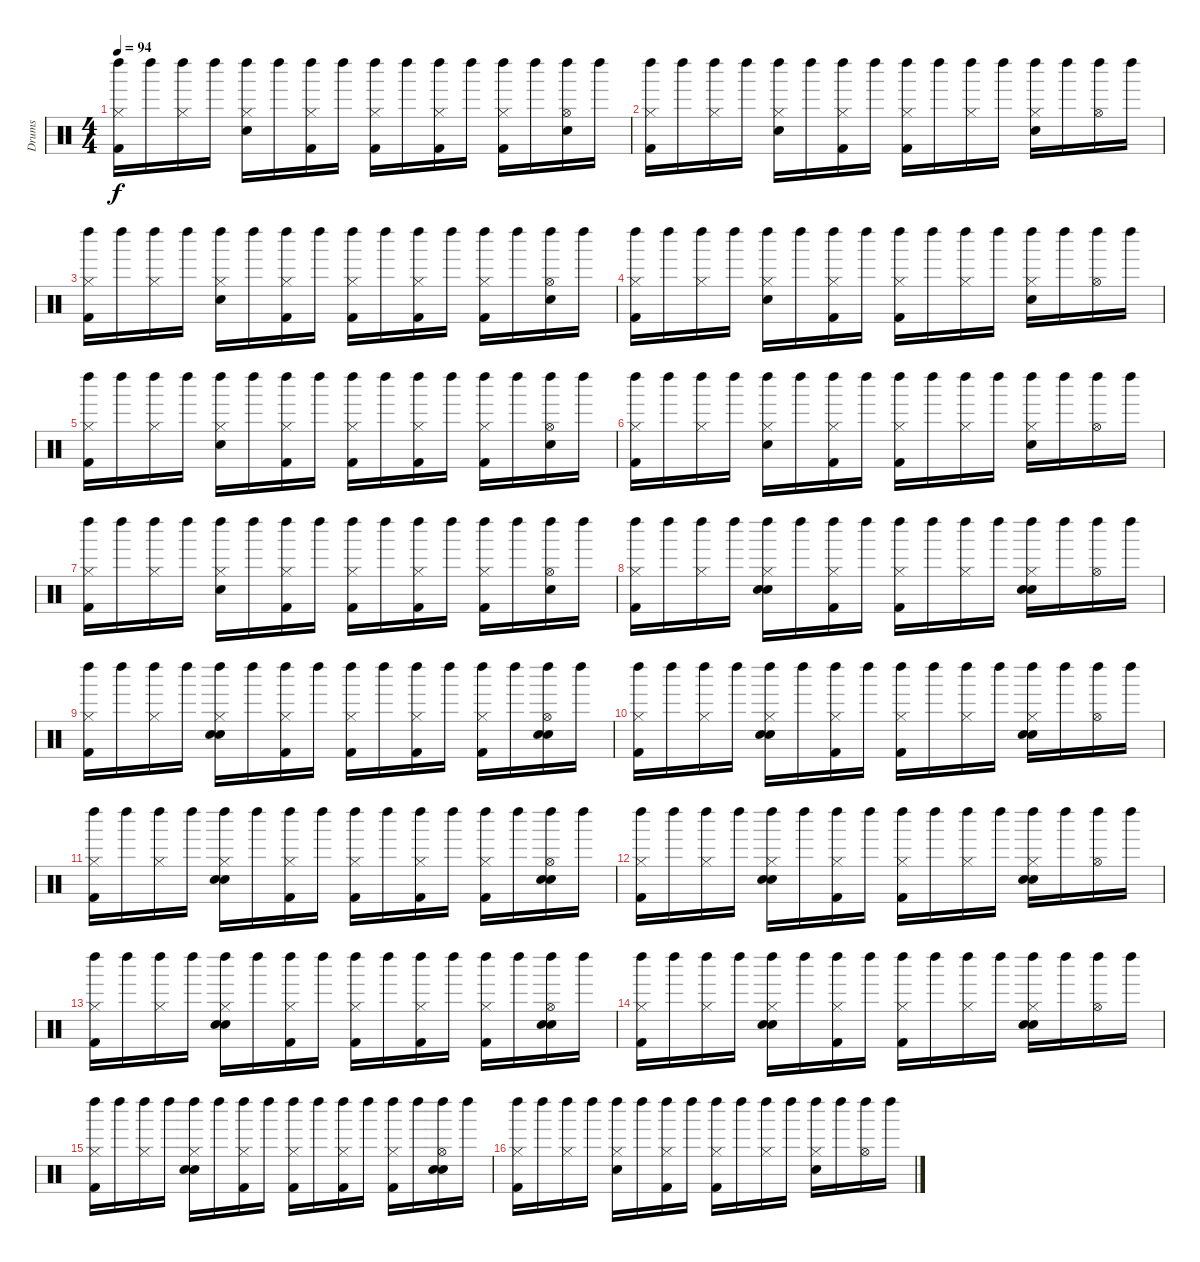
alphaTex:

\track ("Drums" "Drums") {instrument percussion}
\staff {score}
\articulation defaults
\ts (4 4)
\tempo 94
\clef neutral
\ks c
("Left Maraca (hit)" "Hi-Hat (closed)" "Kick (hit) 2").16{dy f} "Left Maraca (hit)".16 ("Left Maraca (hit)" "Hi-Hat (closed)").16 "Left Maraca (hit)".16 ("Left Maraca (hit)" "Hi-Hat (closed)" "Snare (hit) 2").16 "Left Maraca (hit)".16 ("Left Maraca (hit)" "Hi-Hat (closed)" "Kick (hit) 2").16 "Left Maraca (hit)".16 ("Left Maraca (hit)" "Hi-Hat (closed)" "Kick (hit) 2").16 "Left Maraca (hit)".16 ("Left Maraca (hit)" "Hi-Hat (closed)" "Kick (hit) 2").16 "Left Maraca (hit)".16 ("Left Maraca (hit)" "Hi-Hat (closed)" "Kick (hit) 2").16 "Left Maraca (hit)".16 ("Left Maraca (hit)" "Hi-Hat (open)" "Snare (hit) 2").16 "Left Maraca (hit)".16 |
("Left Maraca (hit)" "Hi-Hat (closed)" "Kick (hit) 2").16 "Left Maraca (hit)".16 ("Left Maraca (hit)" "Hi-Hat (closed)").16 "Left Maraca (hit)".16 ("Left Maraca (hit)" "Hi-Hat (closed)" "Snare (hit) 2").16 "Left Maraca (hit)".16 ("Left Maraca (hit)" "Hi-Hat (closed)" "Kick (hit) 2").16 "Left Maraca (hit)".16 ("Left Maraca (hit)" "Hi-Hat (closed)" "Kick (hit) 2").16 "Left Maraca (hit)".16 ("Left Maraca (hit)" "Hi-Hat (closed)").16 "Left Maraca (hit)".16 ("Left Maraca (hit)" "Hi-Hat (closed)" "Snare (hit) 2").16 "Left Maraca (hit)".16 ("Left Maraca (hit)" "Hi-Hat (open)").16 "Left Maraca (hit)".16 |
("Left Maraca (hit)" "Hi-Hat (closed)" "Kick (hit) 2").16 "Left Maraca (hit)".16 ("Left Maraca (hit)" "Hi-Hat (closed)").16 "Left Maraca (hit)".16 ("Left Maraca (hit)" "Hi-Hat (closed)" "Snare (hit) 2").16 "Left Maraca (hit)".16 ("Left Maraca (hit)" "Hi-Hat (closed)" "Kick (hit) 2").16 "Left Maraca (hit)".16 ("Left Maraca (hit)" "Hi-Hat (closed)" "Kick (hit) 2").16 "Left Maraca (hit)".16 ("Left Maraca (hit)" "Hi-Hat (closed)" "Kick (hit) 2").16 "Left Maraca (hit)".16 ("Left Maraca (hit)" "Hi-Hat (closed)" "Kick (hit) 2").16 "Left Maraca (hit)".16 ("Left Maraca (hit)" "Hi-Hat (open)" "Snare (hit) 2").16 "Left Maraca (hit)".16 |
("Left Maraca (hit)" "Hi-Hat (closed)" "Kick (hit) 2").16 "Left Maraca (hit)".16 ("Left Maraca (hit)" "Hi-Hat (closed)").16 "Left Maraca (hit)".16 ("Left Maraca (hit)" "Hi-Hat (closed)" "Snare (hit) 2").16 "Left Maraca (hit)".16 ("Left Maraca (hit)" "Hi-Hat (closed)" "Kick (hit) 2").16 "Left Maraca (hit)".16 ("Left Maraca (hit)" "Hi-Hat (closed)" "Kick (hit) 2").16 "Left Maraca (hit)".16 ("Left Maraca (hit)" "Hi-Hat (closed)").16 "Left Maraca (hit)".16 ("Left Maraca (hit)" "Hi-Hat (closed)" "Snare (hit) 2").16 "Left Maraca (hit)".16 ("Left Maraca (hit)" "Hi-Hat (open)").16 "Left Maraca (hit)".16 |
("Left Maraca (hit)" "Hi-Hat (closed)" "Kick (hit) 2").16 "Left Maraca (hit)".16 ("Left Maraca (hit)" "Hi-Hat (closed)").16 "Left Maraca (hit)".16 ("Left Maraca (hit)" "Hi-Hat (closed)" "Snare (hit) 2").16 "Left Maraca (hit)".16 ("Left Maraca (hit)" "Hi-Hat (closed)" "Kick (hit) 2").16 "Left Maraca (hit)".16 ("Left Maraca (hit)" "Hi-Hat (closed)" "Kick (hit) 2").16 "Left Maraca (hit)".16 ("Left Maraca (hit)" "Hi-Hat (closed)" "Kick (hit) 2").16 "Left Maraca (hit)".16 ("Left Maraca (hit)" "Hi-Hat (closed)" "Kick (hit) 2").16 "Left Maraca (hit)".16 ("Left Maraca (hit)" "Hi-Hat (open)" "Snare (hit) 2").16 "Left Maraca (hit)".16 |
("Left Maraca (hit)" "Hi-Hat (closed)" "Kick (hit) 2").16 "Left Maraca (hit)".16 ("Left Maraca (hit)" "Hi-Hat (closed)").16 "Left Maraca (hit)".16 ("Left Maraca (hit)" "Hi-Hat (closed)" "Snare (hit) 2").16 "Left Maraca (hit)".16 ("Left Maraca (hit)" "Hi-Hat (closed)" "Kick (hit) 2").16 "Left Maraca (hit)".16 ("Left Maraca (hit)" "Hi-Hat (closed)" "Kick (hit) 2").16 "Left Maraca (hit)".16 ("Left Maraca (hit)" "Hi-Hat (closed)").16 "Left Maraca (hit)".16 ("Left Maraca (hit)" "Hi-Hat (closed)" "Snare (hit) 2").16 "Left Maraca (hit)".16 ("Left Maraca (hit)" "Hi-Hat (open)").16 "Left Maraca (hit)".16 |
("Left Maraca (hit)" "Hi-Hat (closed)" "Kick (hit) 2").16 "Left Maraca (hit)".16 ("Left Maraca (hit)" "Hi-Hat (closed)").16 "Left Maraca (hit)".16 ("Left Maraca (hit)" "Hi-Hat (closed)" "Snare (hit) 2").16 "Left Maraca (hit)".16 ("Left Maraca (hit)" "Hi-Hat (closed)" "Kick (hit) 2").16 "Left Maraca (hit)".16 ("Left Maraca (hit)" "Hi-Hat (closed)" "Kick (hit) 2").16 "Left Maraca (hit)".16 ("Left Maraca (hit)" "Hi-Hat (closed)" "Kick (hit) 2").16 "Left Maraca (hit)".16 ("Left Maraca (hit)" "Hi-Hat (closed)" "Kick (hit) 2").16 "Left Maraca (hit)".16 ("Left Maraca (hit)" "Hi-Hat (open)" "Snare (hit) 2").16 "Left Maraca (hit)".16 |
("Left Maraca (hit)" "Hi-Hat (closed)" "Kick (hit) 2").16 "Left Maraca (hit)".16 ("Left Maraca (hit)" "Hi-Hat (closed)").16 "Left Maraca (hit)".16 ("Left Maraca (hit)" "Hi-Hat (closed)" "Electric Snare (hit)" "Snare (hit) 2").16 "Left Maraca (hit)".16 ("Left Maraca (hit)" "Hi-Hat (closed)" "Kick (hit) 2").16 "Left Maraca (hit)".16 ("Left Maraca (hit)" "Hi-Hat (closed)" "Kick (hit) 2").16 "Left Maraca (hit)".16 ("Left Maraca (hit)" "Hi-Hat (closed)").16 "Left Maraca (hit)".16 ("Left Maraca (hit)" "Hi-Hat (closed)" "Electric Snare (hit)" "Snare (hit) 2").16 "Left Maraca (hit)".16 ("Left Maraca (hit)" "Hi-Hat (open)").16 "Left Maraca (hit)".16 |
("Left Maraca (hit)" "Hi-Hat (closed)" "Kick (hit) 2").16 "Left Maraca (hit)".16 ("Left Maraca (hit)" "Hi-Hat (closed)").16 "Left Maraca (hit)".16 ("Left Maraca (hit)" "Hi-Hat (closed)" "Electric Snare (hit)" "Snare (hit) 2").16 "Left Maraca (hit)".16 ("Left Maraca (hit)" "Hi-Hat (closed)" "Kick (hit) 2").16 "Left Maraca (hit)".16 ("Left Maraca (hit)" "Hi-Hat (closed)" "Kick (hit) 2").16 "Left Maraca (hit)".16 ("Left Maraca (hit)" "Hi-Hat (closed)" "Kick (hit) 2").16 "Left Maraca (hit)".16 ("Left Maraca (hit)" "Hi-Hat (closed)" "Kick (hit) 2").16 "Left Maraca (hit)".16 ("Left Maraca (hit)" "Hi-Hat (open)" "Snare (hit) 2" "Electric Snare (hit)").16 "Left Maraca (hit)".16 |
("Left Maraca (hit)" "Hi-Hat (closed)" "Kick (hit) 2").16 "Left Maraca (hit)".16 ("Left Maraca (hit)" "Hi-Hat (closed)").16 "Left Maraca (hit)".16 ("Left Maraca (hit)" "Hi-Hat (closed)" "Electric Snare (hit)" "Snare (hit) 2").16 "Left Maraca (hit)".16 ("Left Maraca (hit)" "Hi-Hat (closed)" "Kick (hit) 2").16 "Left Maraca (hit)".16 ("Left Maraca (hit)" "Hi-Hat (closed)" "Kick (hit) 2").16 "Left Maraca (hit)".16 ("Left Maraca (hit)" "Hi-Hat (closed)").16 "Left Maraca (hit)".16 ("Left Maraca (hit)" "Hi-Hat (closed)" "Electric Snare (hit)" "Snare (hit) 2").16 "Left Maraca (hit)".16 ("Left Maraca (hit)" "Hi-Hat (open)").16 "Left Maraca (hit)".16 |
("Left Maraca (hit)" "Hi-Hat (closed)" "Kick (hit) 2").16 "Left Maraca (hit)".16 ("Left Maraca (hit)" "Hi-Hat (closed)").16 "Left Maraca (hit)".16 ("Left Maraca (hit)" "Hi-Hat (closed)" "Electric Snare (hit)" "Snare (hit) 2").16 "Left Maraca (hit)".16 ("Left Maraca (hit)" "Hi-Hat (closed)" "Kick (hit) 2").16 "Left Maraca (hit)".16 ("Left Maraca (hit)" "Hi-Hat (closed)" "Kick (hit) 2").16 "Left Maraca (hit)".16 ("Left Maraca (hit)" "Hi-Hat (closed)" "Kick (hit) 2").16 "Left Maraca (hit)".16 ("Left Maraca (hit)" "Hi-Hat (closed)" "Kick (hit) 2").16 "Left Maraca (hit)".16 ("Left Maraca (hit)" "Hi-Hat (open)" "Snare (hit) 2" "Electric Snare (hit)").16 "Left Maraca (hit)".16 |
("Left Maraca (hit)" "Hi-Hat (closed)" "Kick (hit) 2").16 "Left Maraca (hit)".16 ("Left Maraca (hit)" "Hi-Hat (closed)").16 "Left Maraca (hit)".16 ("Left Maraca (hit)" "Hi-Hat (closed)" "Electric Snare (hit)" "Snare (hit) 2").16 "Left Maraca (hit)".16 ("Left Maraca (hit)" "Hi-Hat (closed)" "Kick (hit) 2").16 "Left Maraca (hit)".16 ("Left Maraca (hit)" "Hi-Hat (closed)" "Kick (hit) 2").16 "Left Maraca (hit)".16 ("Left Maraca (hit)" "Hi-Hat (closed)").16 "Left Maraca (hit)".16 ("Left Maraca (hit)" "Hi-Hat (closed)" "Electric Snare (hit)" "Snare (hit) 2").16 "Left Maraca (hit)".16 ("Left Maraca (hit)" "Hi-Hat (open)").16 "Left Maraca (hit)".16 |
("Left Maraca (hit)" "Hi-Hat (closed)" "Kick (hit) 2").16 "Left Maraca (hit)".16 ("Left Maraca (hit)" "Hi-Hat (closed)").16 "Left Maraca (hit)".16 ("Left Maraca (hit)" "Hi-Hat (closed)" "Electric Snare (hit)" "Snare (hit) 2").16 "Left Maraca (hit)".16 ("Left Maraca (hit)" "Hi-Hat (closed)" "Kick (hit) 2").16 "Left Maraca (hit)".16 ("Left Maraca (hit)" "Hi-Hat (closed)" "Kick (hit) 2").16 "Left Maraca (hit)".16 ("Left Maraca (hit)" "Hi-Hat (closed)" "Kick (hit) 2").16 "Left Maraca (hit)".16 ("Left Maraca (hit)" "Hi-Hat (closed)" "Kick (hit) 2").16 "Left Maraca (hit)".16 ("Left Maraca (hit)" "Hi-Hat (open)" "Snare (hit) 2" "Electric Snare (hit)").16 "Left Maraca (hit)".16 |
("Left Maraca (hit)" "Hi-Hat (closed)" "Kick (hit) 2").16 "Left Maraca (hit)".16 ("Left Maraca (hit)" "Hi-Hat (closed)").16 "Left Maraca (hit)".16 ("Left Maraca (hit)" "Hi-Hat (closed)" "Electric Snare (hit)" "Snare (hit) 2").16 "Left Maraca (hit)".16 ("Left Maraca (hit)" "Hi-Hat (closed)" "Kick (hit) 2").16 "Left Maraca (hit)".16 ("Left Maraca (hit)" "Hi-Hat (closed)" "Kick (hit) 2").16 "Left Maraca (hit)".16 ("Left Maraca (hit)" "Hi-Hat (closed)").16 "Left Maraca (hit)".16 ("Left Maraca (hit)" "Hi-Hat (closed)" "Electric Snare (hit)" "Snare (hit) 2").16 "Left Maraca (hit)".16 ("Left Maraca (hit)" "Hi-Hat (open)").16 "Left Maraca (hit)".16 |
("Left Maraca (hit)" "Hi-Hat (closed)" "Kick (hit) 2").16 "Left Maraca (hit)".16 ("Left Maraca (hit)" "Hi-Hat (closed)").16 "Left Maraca (hit)".16 ("Left Maraca (hit)" "Hi-Hat (closed)" "Electric Snare (hit)" "Snare (hit) 2").16 "Left Maraca (hit)".16 ("Left Maraca (hit)" "Hi-Hat (closed)" "Kick (hit) 2").16 "Left Maraca (hit)".16 ("Left Maraca (hit)" "Hi-Hat (closed)" "Kick (hit) 2").16 "Left Maraca (hit)".16 ("Left Maraca (hit)" "Hi-Hat (closed)" "Kick (hit) 2").16 "Left Maraca (hit)".16 ("Left Maraca (hit)" "Hi-Hat (closed)" "Kick (hit) 2").16 "Left Maraca (hit)".16 ("Left Maraca (hit)" "Hi-Hat (open)" "Snare (hit) 2" "Electric Snare (hit)").16 "Left Maraca (hit)".16 |
("Left Maraca (hit)" "Hi-Hat (closed)" "Kick (hit) 2").16 "Left Maraca (hit)".16 ("Left Maraca (hit)" "Hi-Hat (closed)").16 "Left Maraca (hit)".16 ("Left Maraca (hit)" "Hi-Hat (closed)" "Snare (hit) 2").16 "Left Maraca (hit)".16 ("Left Maraca (hit)" "Hi-Hat (closed)" "Kick (hit) 2").16 "Left Maraca (hit)".16 ("Left Maraca (hit)" "Hi-Hat (closed)" "Kick (hit) 2").16 "Left Maraca (hit)".16 ("Left Maraca (hit)" "Hi-Hat (closed)").16 "Left Maraca (hit)".16 ("Left Maraca (hit)" "Hi-Hat (closed)" "Snare (hit) 2").16 "Left Maraca (hit)".16 ("Left Maraca (hit)" "Hi-Hat (open)").16 "Left Maraca (hit)".16
